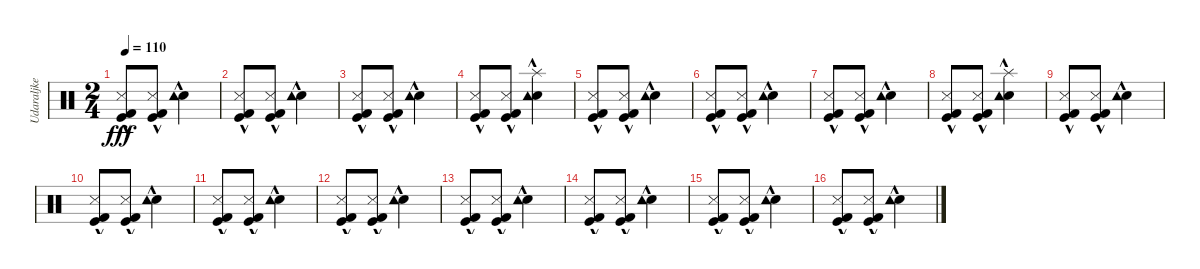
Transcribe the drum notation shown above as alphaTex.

\track ("Udaraljke" "Udaraljke") {instrument percussion}
\staff {score}
\articulation defaults
\ts (2 4)
\tempo 110
\clef neutral
\ks c
("Kick (hit) 2"{hac} "Kick (hit)"{hac} "Snare (side stick) 3"{hac}).8{dy fff} ("Kick (hit) 2"{hac} "Kick (hit)"{hac} "Snare (side stick) 3"{hac}).8 ("Snare (hit) 2"{hac} "Tambourine (hit)"{hac}).4 |
("Kick (hit) 2"{hac} "Kick (hit)"{hac} "Snare (side stick) 3"{hac}).8 ("Kick (hit) 2"{hac} "Kick (hit)"{hac} "Snare (side stick) 3"{hac}).8 ("Snare (hit) 2"{hac} "Tambourine (hit)"{hac}).4 |
("Kick (hit) 2"{hac} "Kick (hit)"{hac} "Snare (side stick) 3"{hac}).8 ("Kick (hit) 2"{hac} "Kick (hit)"{hac} "Snare (side stick) 3"{hac}).8 ("Snare (hit) 2"{hac} "Tambourine (hit)"{hac}).4 |
("Kick (hit) 2"{hac} "Kick (hit)"{hac} "Snare (side stick) 3"{hac}).8 ("Kick (hit) 2"{hac} "Kick (hit)"{hac} "Snare (side stick) 3"{hac}).8 ("Snare (hit) 2"{hac} "Splash (hit)"{hac} "Tambourine (hit)"{hac}).4 |
("Kick (hit) 2"{hac} "Kick (hit)"{hac} "Snare (side stick) 3"{hac}).8 ("Kick (hit) 2"{hac} "Kick (hit)"{hac} "Snare (side stick) 3"{hac}).8 ("Snare (hit) 2"{hac} "Tambourine (hit)"{hac}).4 |
("Kick (hit) 2"{hac} "Kick (hit)"{hac} "Snare (side stick) 3"{hac}).8 ("Kick (hit) 2"{hac} "Kick (hit)"{hac} "Snare (side stick) 3"{hac}).8 ("Snare (hit) 2"{hac} "Tambourine (hit)"{hac}).4 |
("Kick (hit) 2"{hac} "Kick (hit)"{hac} "Snare (side stick) 3"{hac}).8 ("Kick (hit) 2"{hac} "Kick (hit)"{hac} "Snare (side stick) 3"{hac}).8 ("Snare (hit) 2"{hac} "Tambourine (hit)"{hac}).4 |
("Kick (hit) 2"{hac} "Kick (hit)"{hac} "Snare (side stick) 3"{hac}).8 ("Kick (hit) 2"{hac} "Kick (hit)"{hac} "Snare (side stick) 3"{hac}).8 ("Snare (hit) 2"{hac} "Splash (hit)"{hac} "Tambourine (hit)"{hac}).4 |
("Kick (hit) 2"{hac} "Kick (hit)"{hac} "Snare (side stick) 3"{hac}).8 ("Kick (hit) 2"{hac} "Kick (hit)"{hac} "Snare (side stick) 3"{hac}).8 ("Snare (hit) 2"{hac} "Tambourine (hit)"{hac}).4 |
("Kick (hit) 2"{hac} "Kick (hit)"{hac} "Snare (side stick) 3"{hac}).8 ("Kick (hit) 2"{hac} "Kick (hit)"{hac} "Snare (side stick) 3"{hac}).8 ("Snare (hit) 2"{hac} "Tambourine (hit)"{hac}).4 |
("Kick (hit) 2"{hac} "Kick (hit)"{hac} "Snare (side stick) 3"{hac}).8 ("Kick (hit) 2"{hac} "Kick (hit)"{hac} "Snare (side stick) 3"{hac}).8 ("Snare (hit) 2"{hac} "Tambourine (hit)"{hac}).4 |
("Kick (hit) 2"{hac} "Kick (hit)"{hac} "Snare (side stick) 3"{hac}).8 ("Kick (hit) 2"{hac} "Kick (hit)"{hac} "Snare (side stick) 3"{hac}).8 ("Snare (hit) 2"{hac} "Tambourine (hit)"{hac}).4 |
("Kick (hit) 2"{hac} "Kick (hit)"{hac} "Snare (side stick) 3"{hac}).8 ("Kick (hit) 2"{hac} "Kick (hit)"{hac} "Snare (side stick) 3"{hac}).8 ("Snare (hit) 2"{hac} "Tambourine (hit)"{hac}).4 |
("Kick (hit) 2"{hac} "Kick (hit)"{hac} "Snare (side stick) 3"{hac}).8 ("Kick (hit) 2"{hac} "Kick (hit)"{hac} "Snare (side stick) 3"{hac}).8 ("Snare (hit) 2"{hac} "Tambourine (hit)"{hac}).4 |
("Kick (hit) 2"{hac} "Kick (hit)"{hac} "Snare (side stick) 3"{hac}).8 ("Kick (hit) 2"{hac} "Kick (hit)"{hac} "Snare (side stick) 3"{hac}).8 ("Snare (hit) 2"{hac} "Tambourine (hit)"{hac}).4 |
("Kick (hit) 2"{hac} "Kick (hit)"{hac} "Snare (side stick) 3"{hac}).8 ("Kick (hit) 2"{hac} "Kick (hit)"{hac} "Snare (side stick) 3"{hac}).8 ("Snare (hit) 2"{hac} "Tambourine (hit)"{hac}).4
